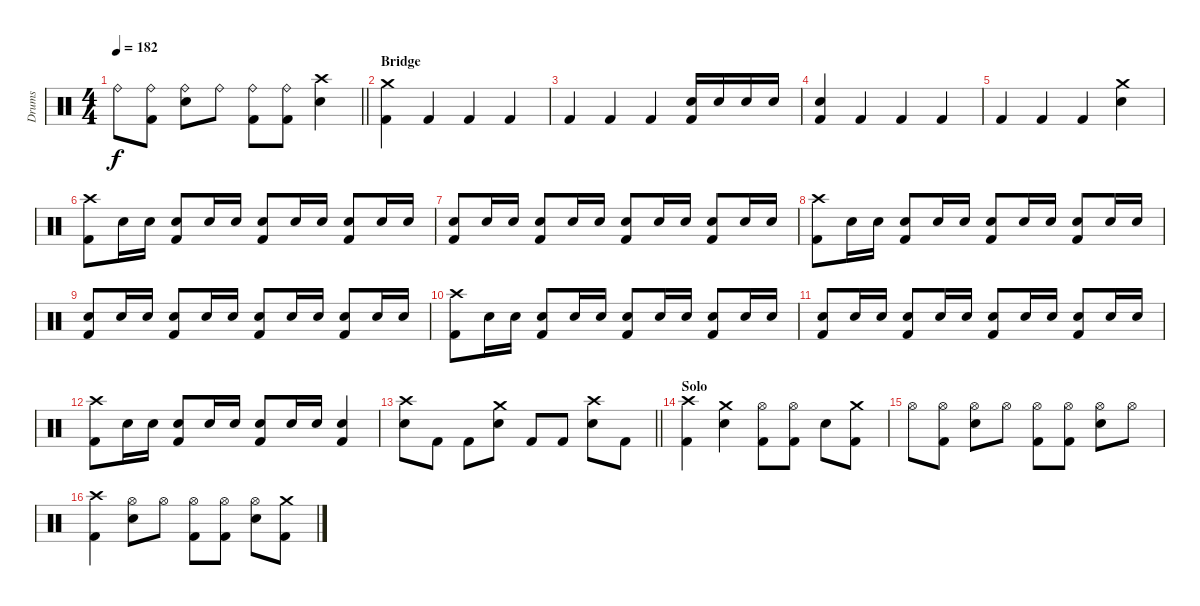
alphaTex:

\track ("Drums" "Drums") {instrument percussion}
\staff {score}
\articulation defaults
\ts (4 4)
\tempo 182
\clef neutral
\barLineRight lightlight
\ks c "Ride (bell)".8{dy f}
("Ride (bell)" "Kick (hit) 2").8 ("Ride (bell)" "Snare (hit) 2").8 "Ride (bell)".8 ("Ride (bell)" "Kick (hit) 2").8 ("Ride (bell)" "Kick (hit) 2").8 ("Crash high (hit)" "Snare (hit) 2").4 |
\section ("" "Bridge")
("Crash medium (hit)" "Kick (hit) 2").4 "Kick (hit) 2".4 "Kick (hit) 2".4 "Kick (hit) 2".4 |
"Kick (hit) 2".4 "Kick (hit) 2".4 "Kick (hit) 2".4 ("Snare (hit) 2" "Kick (hit) 2").16 "Snare (hit) 2".16 "Snare (hit) 2".16 "Snare (hit) 2".16 |
("Snare (hit) 2" "Kick (hit) 2").4 "Kick (hit) 2".4 "Kick (hit) 2".4 "Kick (hit) 2".4 |
"Kick (hit) 2".4 "Kick (hit) 2".4 "Kick (hit) 2".4 ("Crash medium (hit)" "Snare (hit) 2").4 |
("Crash high (hit)" "Kick (hit) 2").8 "Snare (hit) 2".16 "Snare (hit) 2".16 ("Snare (hit) 2" "Kick (hit) 2").8 "Snare (hit) 2".16 "Snare (hit) 2".16 ("Snare (hit) 2" "Kick (hit) 2").8 "Snare (hit) 2".16 "Snare (hit) 2".16 ("Snare (hit) 2" "Kick (hit) 2").8 "Snare (hit) 2".16 "Snare (hit) 2".16 |
("Snare (hit) 2" "Kick (hit) 2").8 "Snare (hit) 2".16 "Snare (hit) 2".16 ("Snare (hit) 2" "Kick (hit) 2").8 "Snare (hit) 2".16 "Snare (hit) 2".16 ("Snare (hit) 2" "Kick (hit) 2").8 "Snare (hit) 2".16 "Snare (hit) 2".16 ("Snare (hit) 2" "Kick (hit) 2").8 "Snare (hit) 2".16 "Snare (hit) 2".16 |
("Crash high (hit)" "Kick (hit) 2").8 "Snare (hit) 2".16 "Snare (hit) 2".16 ("Snare (hit) 2" "Kick (hit) 2").8 "Snare (hit) 2".16 "Snare (hit) 2".16 ("Snare (hit) 2" "Kick (hit) 2").8 "Snare (hit) 2".16 "Snare (hit) 2".16 ("Snare (hit) 2" "Kick (hit) 2").8 "Snare (hit) 2".16 "Snare (hit) 2".16 |
("Snare (hit) 2" "Kick (hit) 2").8 "Snare (hit) 2".16 "Snare (hit) 2".16 ("Snare (hit) 2" "Kick (hit) 2").8 "Snare (hit) 2".16 "Snare (hit) 2".16 ("Snare (hit) 2" "Kick (hit) 2").8 "Snare (hit) 2".16 "Snare (hit) 2".16 ("Snare (hit) 2" "Kick (hit) 2").8 "Snare (hit) 2".16 "Snare (hit) 2".16 |
("Crash high (hit)" "Kick (hit) 2").8 "Snare (hit) 2".16 "Snare (hit) 2".16 ("Snare (hit) 2" "Kick (hit) 2").8 "Snare (hit) 2".16 "Snare (hit) 2".16 ("Snare (hit) 2" "Kick (hit) 2").8 "Snare (hit) 2".16 "Snare (hit) 2".16 ("Snare (hit) 2" "Kick (hit) 2").8 "Snare (hit) 2".16 "Snare (hit) 2".16 |
("Snare (hit) 2" "Kick (hit) 2").8 "Snare (hit) 2".16 "Snare (hit) 2".16 ("Snare (hit) 2" "Kick (hit) 2").8 "Snare (hit) 2".16 "Snare (hit) 2".16 ("Snare (hit) 2" "Kick (hit) 2").8 "Snare (hit) 2".16 "Snare (hit) 2".16 ("Snare (hit) 2" "Kick (hit) 2").8 "Snare (hit) 2".16 "Snare (hit) 2".16 |
("Crash high (hit)" "Kick (hit) 2").8 "Snare (hit) 2".16 "Snare (hit) 2".16 ("Snare (hit) 2" "Kick (hit) 2").8 "Snare (hit) 2".16 "Snare (hit) 2".16 ("Snare (hit) 2" "Kick (hit) 2").8 "Snare (hit) 2".16 "Snare (hit) 2".16 ("Snare (hit) 2" "Kick (hit) 2").4 |
\barLineRight lightlight
("Crash high (hit)" "Snare (hit) 2").8 "Kick (hit) 2".8 "Kick (hit) 2".8 ("Crash medium (hit)" "Snare (hit) 2").8 "Kick (hit) 2".8 "Kick (hit) 2".8 ("Crash high (hit)" "Snare (hit) 2").8 "Kick (hit) 2".8 |
\section ("" "Solo")
("Crash high (hit)" "Kick (hit) 2").4 ("Crash medium (hit)" "Snare (hit) 2").4 ("Hi-Hat (open)" "Kick (hit) 2").8 ("Hi-Hat (open)" "Kick (hit) 2").8 "Snare (hit) 2".8 ("Crash medium (hit)" "Kick (hit) 2").8 |
"Hi-Hat (open)".8 ("Hi-Hat (open)" "Kick (hit) 2").8 ("Hi-Hat (open)" "Snare (hit) 2").8 "Hi-Hat (open)".8 ("Hi-Hat (open)" "Kick (hit) 2").8 ("Hi-Hat (open)" "Kick (hit) 2").8 ("Hi-Hat (open)" "Snare (hit) 2").8 "Hi-Hat (open)".8 |
("Crash high (hit)" "Kick (hit) 2").4 ("Hi-Hat (open)" "Snare (hit) 2").8 "Hi-Hat (open)".8 ("Hi-Hat (open)" "Kick (hit) 2").8 ("Hi-Hat (open)" "Kick (hit) 2").8 ("Hi-Hat (open)" "Snare (hit) 2").8 ("Crash medium (hit)" "Kick (hit) 2").8
